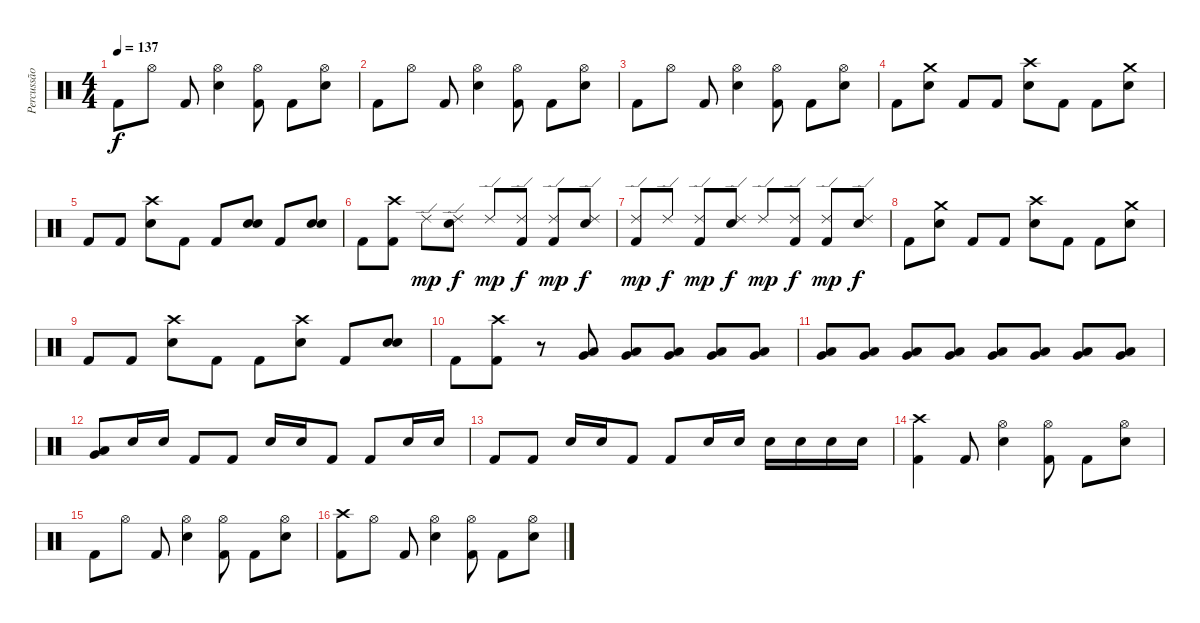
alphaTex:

\track ("Percussão" "Percussão") {instrument percussion}
\staff {score}
\articulation defaults
\ts (4 4)
\tempo 137
\clef neutral
\ks c "Kick (hit) 2".8{dy f} "Hi-Hat (open)".8 "Kick (hit) 2".8
("Hi-Hat (open)" "Electric Snare (hit)").4 ("Hi-Hat (open)" "Kick (hit) 2").8 "Kick (hit) 2".8 ("Hi-Hat (open)" "Electric Snare (hit)").8 |
"Kick (hit) 2".8 "Hi-Hat (open)".8 "Kick (hit) 2".8 ("Hi-Hat (open)" "Electric Snare (hit)").4 ("Hi-Hat (open)" "Kick (hit) 2").8 "Kick (hit) 2".8 ("Hi-Hat (open)" "Electric Snare (hit)").8 |
"Kick (hit) 2".8 "Hi-Hat (open)".8 "Kick (hit) 2".8 ("Hi-Hat (open)" "Electric Snare (hit)").4 ("Hi-Hat (open)" "Kick (hit) 2").8 "Kick (hit) 2".8 ("Hi-Hat (open)" "Electric Snare (hit)").8 |
"Kick (hit) 2".8 ("Crash medium (hit)" "Electric Snare (hit)").8 "Kick (hit) 2".8 "Kick (hit) 2".8 ("Crash high (hit)" "Electric Snare (hit)").8 "Kick (hit) 2".8 "Kick (hit) 2".8 ("Crash medium (hit)" "Electric Snare (hit)").8 |
"Kick (hit) 2".8 "Kick (hit) 2".8 ("Crash high (hit)" "Electric Snare (hit)").8 "Kick (hit) 2".8 "Kick (hit) 2".8 ("Electric Snare (hit)" "Electric Snare (hit)").8{bd 60} "Kick (hit) 2".8 ("Electric Snare (hit)" "Electric Snare (hit)").8{bd 60} |
"Kick (hit) 2".8 ("Crash high (hit)" "Kick (hit) 2").8 "Ride (edge) 2".8{dy mp} ("Ride (edge) 2" "Electric Snare (hit)").8{dy f} "Ride (edge) 2".8{dy mp} ("Ride (edge) 2" "Kick (hit) 2").8{dy f} ("Ride (edge) 2" "Kick (hit) 2").8{dy mp} ("Ride (edge) 2" "Electric Snare (hit)").8{dy f} |
("Ride (edge) 2" "Kick (hit) 2").8{dy mp} "Ride (edge) 2".8{dy f} ("Ride (edge) 2" "Kick (hit) 2").8{dy mp} ("Ride (edge) 2" "Electric Snare (hit)").8{dy f} "Ride (edge) 2".8{dy mp} ("Ride (edge) 2" "Kick (hit) 2").8{dy f} ("Ride (edge) 2" "Kick (hit) 2").8{dy mp} ("Ride (edge) 2" "Electric Snare (hit)").8{dy f} |
"Kick (hit) 2".8 ("Crash medium (hit)" "Electric Snare (hit)").8 "Kick (hit) 2".8 "Kick (hit) 2".8 ("Crash high (hit)" "Electric Snare (hit)").8 "Kick (hit) 2".8 "Kick (hit) 2".8 ("Crash medium (hit)" "Electric Snare (hit)").8 |
"Kick (hit) 2".8 "Kick (hit) 2".8 ("Crash high (hit)" "Electric Snare (hit)").8 "Kick (hit) 2".8 "Kick (hit) 2".8 ("Crash high (hit)" "Electric Snare (hit)").8 "Kick (hit) 2".8 ("Electric Snare (hit)" "Electric Snare (hit)").8{bd 60} |
"Kick (hit) 2".8 ("Crash high (hit)" "Kick (hit) 2").8 r.8 ("Low Tom (hit)" "Very Low Tom (hit)").8 ("Low Tom (hit)" "Very Low Tom (hit)").8 ("Low Tom (hit)" "Very Low Tom (hit)").8 ("Low Tom (hit)" "Very Low Tom (hit)").8 ("Low Tom (hit)" "Very Low Tom (hit)").8 |
("Low Tom (hit)" "Very Low Tom (hit)").8 ("Low Tom (hit)" "Very Low Tom (hit)").8 ("Low Tom (hit)" "Very Low Tom (hit)").8 ("Low Tom (hit)" "Very Low Tom (hit)").8 ("Low Tom (hit)" "Very Low Tom (hit)").8 ("Low Tom (hit)" "Very Low Tom (hit)").8 ("Low Tom (hit)" "Very Low Tom (hit)").8 ("Low Tom (hit)" "Very Low Tom (hit)").8 |
("Low Tom (hit)" "Very Low Tom (hit)").8 "Electric Snare (hit)".16 "Electric Snare (hit)".16 "Kick (hit) 2".8 "Kick (hit) 2".8 "Electric Snare (hit)".16 "Electric Snare (hit)".16 "Kick (hit) 2".8 "Kick (hit) 2".8 "Electric Snare (hit)".16 "Electric Snare (hit)".16 |
"Kick (hit) 2".8 "Kick (hit) 2".8 "Electric Snare (hit)".16 "Electric Snare (hit)".16 "Kick (hit) 2".8 "Kick (hit) 2".8 "Electric Snare (hit)".16 "Electric Snare (hit)".16 "Electric Snare (hit)".16 "Electric Snare (hit)".16 "Electric Snare (hit)".16 "Electric Snare (hit)".16 |
("Crash high (hit)" "Kick (hit) 2").4 "Kick (hit) 2".8 ("Hi-Hat (open)" "Electric Snare (hit)").4 ("Hi-Hat (open)" "Kick (hit) 2").8 "Kick (hit) 2".8 ("Hi-Hat (open)" "Electric Snare (hit)").8 |
"Kick (hit) 2".8 "Hi-Hat (open)".8 "Kick (hit) 2".8 ("Hi-Hat (open)" "Electric Snare (hit)").4 ("Hi-Hat (open)" "Kick (hit) 2").8 "Kick (hit) 2".8 ("Hi-Hat (open)" "Electric Snare (hit)").8 |
("Crash high (hit)" "Kick (hit) 2").8 "Hi-Hat (open)".8 "Kick (hit) 2".8 ("Hi-Hat (open)" "Electric Snare (hit)").4 ("Hi-Hat (open)" "Kick (hit) 2").8 "Kick (hit) 2".8 ("Hi-Hat (open)" "Electric Snare (hit)").8
